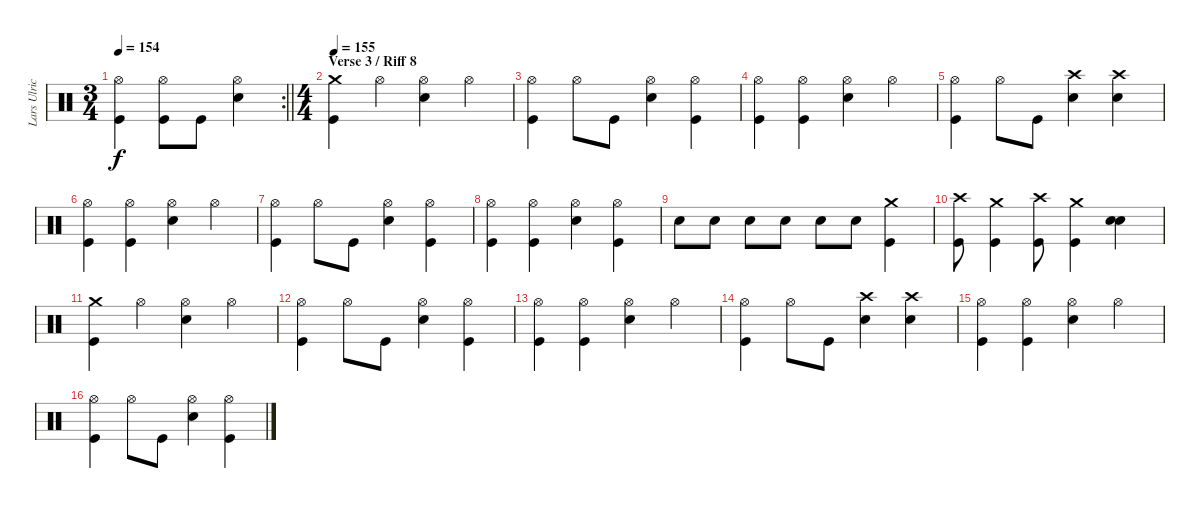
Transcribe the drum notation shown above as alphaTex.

\track ("Lars Ulrich" "Lars Ulric") {instrument percussion}
\staff {score}
\articulation defaults
\rc 2
\ts (3 4)
\tempo 154
\clef neutral
\barLineRight lightlight
\ks c
("Hi-Hat (open)" "Kick (hit)").4{dy f} ("Hi-Hat (open)" "Kick (hit)").8 "Kick (hit)".8 ("Hi-Hat (open)" "Snare (hit) 2").4 |
\ts (4 4)
\section ("" "Verse 3 / Riff 8")
\tempo 154
\tempo 155
("Crash medium (hit)" "Kick (hit)").4 "Hi-Hat (open)".4 ("Hi-Hat (open)" "Snare (hit) 2").4 "Hi-Hat (open)".4 |
("Hi-Hat (open)" "Kick (hit)").4 "Hi-Hat (open)".8 "Kick (hit)".8 ("Hi-Hat (open)" "Snare (hit) 2").4 ("Hi-Hat (open)" "Kick (hit)").4 |
("Hi-Hat (open)" "Kick (hit)").4 ("Hi-Hat (open)" "Kick (hit)").4 ("Hi-Hat (open)" "Snare (hit) 2").4 "Hi-Hat (open)".4 |
("Hi-Hat (open)" "Kick (hit)").4 "Hi-Hat (open)".8 "Kick (hit)".8 ("Crash high (hit)" "Snare (hit) 2").4 ("Crash high (hit)" "Snare (hit) 2").4 |
("Hi-Hat (open)" "Kick (hit)").4 ("Hi-Hat (open)" "Kick (hit)").4 ("Hi-Hat (open)" "Snare (hit) 2").4 "Hi-Hat (open)".4 |
("Hi-Hat (open)" "Kick (hit)").4 "Hi-Hat (open)".8 "Kick (hit)".8 ("Hi-Hat (open)" "Snare (hit) 2").4 ("Hi-Hat (open)" "Kick (hit)").4 |
("Hi-Hat (open)" "Kick (hit)").4 ("Hi-Hat (open)" "Kick (hit)").4 ("Hi-Hat (open)" "Snare (hit) 2").4 ("Hi-Hat (open)" "Kick (hit)").4 |
"Snare (hit) 2".8 "Snare (hit) 2".8 "Snare (hit) 2".8 "Snare (hit) 2".8 "Snare (hit) 2".8 "Snare (hit) 2".8 ("Crash medium (hit)" "Kick (hit)").4 |
("Crash high (hit)" "Kick (hit)").8 ("Crash medium (hit)" "Kick (hit)").4 ("Crash high (hit)" "Kick (hit)").8 ("Crash medium (hit)" "Kick (hit)").4 ("Snare (hit) 2" "Snare (hit) 2").4{bd 240} |
("Crash medium (hit)" "Kick (hit)").4 "Hi-Hat (open)".4 ("Hi-Hat (open)" "Snare (hit) 2").4 "Hi-Hat (open)".4 |
("Hi-Hat (open)" "Kick (hit)").4 "Hi-Hat (open)".8 "Kick (hit)".8 ("Hi-Hat (open)" "Snare (hit) 2").4 ("Hi-Hat (open)" "Kick (hit)").4 |
("Hi-Hat (open)" "Kick (hit)").4 ("Hi-Hat (open)" "Kick (hit)").4 ("Hi-Hat (open)" "Snare (hit) 2").4 "Hi-Hat (open)".4 |
("Hi-Hat (open)" "Kick (hit)").4 "Hi-Hat (open)".8 "Kick (hit)".8 ("Crash high (hit)" "Snare (hit) 2").4 ("Crash high (hit)" "Snare (hit) 2").4 |
("Hi-Hat (open)" "Kick (hit)").4 ("Hi-Hat (open)" "Kick (hit)").4 ("Hi-Hat (open)" "Snare (hit) 2").4 "Hi-Hat (open)".4 |
("Hi-Hat (open)" "Kick (hit)").4 "Hi-Hat (open)".8 "Kick (hit)".8 ("Hi-Hat (open)" "Snare (hit) 2").4 ("Hi-Hat (open)" "Kick (hit)").4
